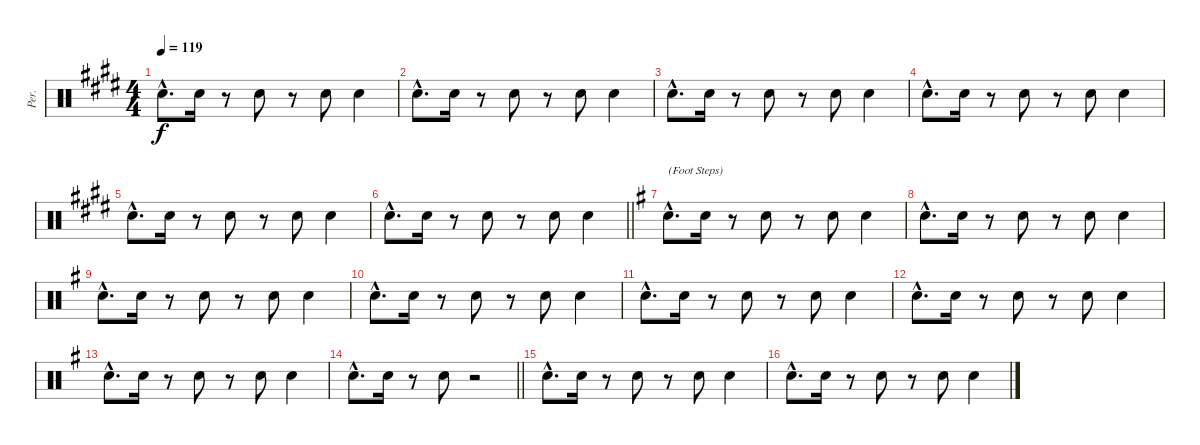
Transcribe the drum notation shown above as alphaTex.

\track ("Per." "Per.") {instrument percussion}
\staff {score}
\articulation defaults
\ts (4 4)
\tempo 119
\clef neutral
\ks c#minor "Hand Clap (hit)"{hac}.8{d dy f} "Hand Clap (hit)".16
r.8 "Hand Clap (hit)".8 r.8 "Hand Clap (hit)".8 "Hand Clap (hit)".4 |
"Hand Clap (hit)"{hac}.8{d} "Hand Clap (hit)".16 r.8 "Hand Clap (hit)".8 r.8 "Hand Clap (hit)".8 "Hand Clap (hit)".4 |
"Hand Clap (hit)"{hac}.8{d} "Hand Clap (hit)".16 r.8 "Hand Clap (hit)".8 r.8 "Hand Clap (hit)".8 "Hand Clap (hit)".4 |
"Hand Clap (hit)"{hac}.8{d} "Hand Clap (hit)".16 r.8 "Hand Clap (hit)".8 r.8 "Hand Clap (hit)".8 "Hand Clap (hit)".4 |
"Hand Clap (hit)"{hac}.8{d} "Hand Clap (hit)".16 r.8 "Hand Clap (hit)".8 r.8 "Hand Clap (hit)".8 "Hand Clap (hit)".4 |
\barLineRight lightlight "Hand Clap (hit)"{hac}.8{d} "Hand Clap (hit)".16
r.8 "Hand Clap (hit)".8 r.8 "Hand Clap (hit)".8 "Hand Clap (hit)".4 |
\ks eminor "Hand Clap (hit)"{hac}.8{d txt "(Foot Steps)"} "Hand Clap (hit)".16
r.8 "Hand Clap (hit)".8 r.8 "Hand Clap (hit)".8 "Hand Clap (hit)".4 |
"Hand Clap (hit)"{hac}.8{d} "Hand Clap (hit)".16 r.8 "Hand Clap (hit)".8 r.8 "Hand Clap (hit)".8 "Hand Clap (hit)".4 |
"Hand Clap (hit)"{hac}.8{d} "Hand Clap (hit)".16 r.8 "Hand Clap (hit)".8 r.8 "Hand Clap (hit)".8 "Hand Clap (hit)".4 |
"Hand Clap (hit)"{hac}.8{d} "Hand Clap (hit)".16 r.8 "Hand Clap (hit)".8 r.8 "Hand Clap (hit)".8 "Hand Clap (hit)".4 |
"Hand Clap (hit)"{hac}.8{d} "Hand Clap (hit)".16 r.8 "Hand Clap (hit)".8 r.8 "Hand Clap (hit)".8 "Hand Clap (hit)".4 |
"Hand Clap (hit)"{hac}.8{d} "Hand Clap (hit)".16 r.8 "Hand Clap (hit)".8 r.8 "Hand Clap (hit)".8 "Hand Clap (hit)".4 |
"Hand Clap (hit)"{hac}.8{d} "Hand Clap (hit)".16 r.8 "Hand Clap (hit)".8 r.8 "Hand Clap (hit)".8 "Hand Clap (hit)".4 |
\barLineRight lightlight "Hand Clap (hit)"{hac}.8{d} "Hand Clap (hit)".16
r.8 "Hand Clap (hit)".8 r.2 |
"Hand Clap (hit)"{hac}.8{d} "Hand Clap (hit)".16 r.8 "Hand Clap (hit)".8 r.8 "Hand Clap (hit)".8 "Hand Clap (hit)".4 |
"Hand Clap (hit)"{hac}.8{d} "Hand Clap (hit)".16 r.8 "Hand Clap (hit)".8 r.8 "Hand Clap (hit)".8 "Hand Clap (hit)".4
